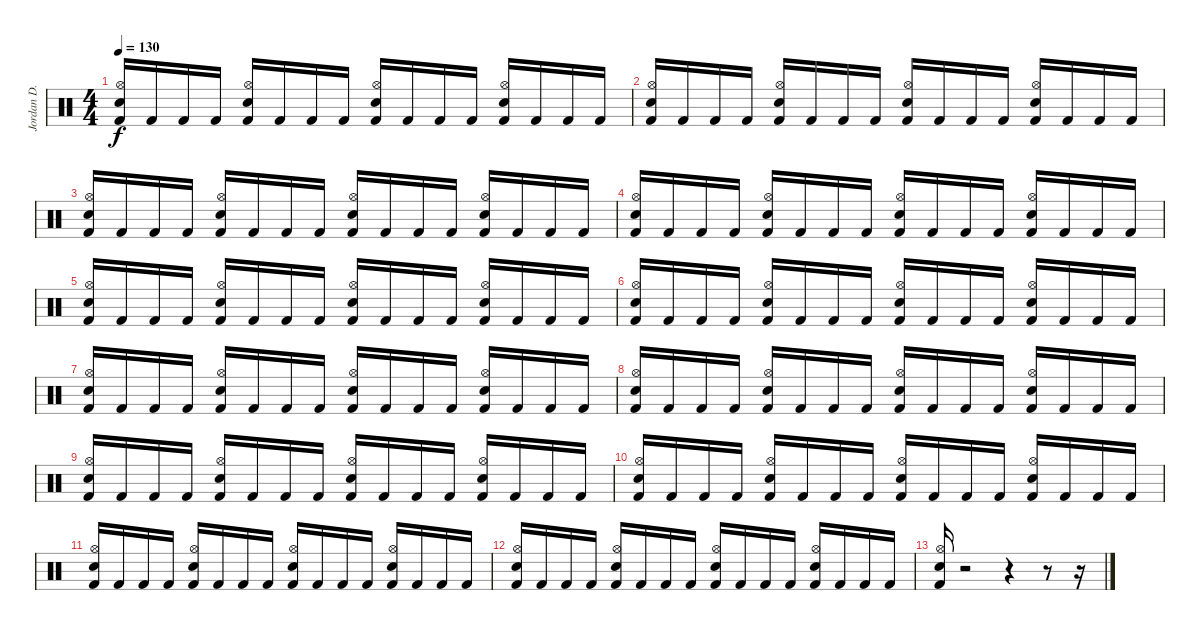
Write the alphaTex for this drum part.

\track ("Jordan D. Samolesky" "Jordan D. ") {instrument percussion}
\staff {score}
\articulation defaults
\ts (4 4)
\tempo 130
\clef neutral
\ks c
("Electric Snare (hit)" "Hi-Hat (open)" "Kick (hit) 2").16{dy f} "Kick (hit) 2".16 "Kick (hit) 2".16 "Kick (hit) 2".16 ("Electric Snare (hit)" "Hi-Hat (open)" "Kick (hit) 2").16 "Kick (hit) 2".16 "Kick (hit) 2".16 "Kick (hit) 2".16 ("Electric Snare (hit)" "Hi-Hat (open)" "Kick (hit) 2").16 "Kick (hit) 2".16 "Kick (hit) 2".16 "Kick (hit) 2".16 ("Electric Snare (hit)" "Hi-Hat (open)" "Kick (hit) 2").16 "Kick (hit) 2".16 "Kick (hit) 2".16 "Kick (hit) 2".16 |
("Electric Snare (hit)" "Hi-Hat (open)" "Kick (hit) 2").16 "Kick (hit) 2".16 "Kick (hit) 2".16 "Kick (hit) 2".16 ("Electric Snare (hit)" "Hi-Hat (open)" "Kick (hit) 2").16 "Kick (hit) 2".16 "Kick (hit) 2".16 "Kick (hit) 2".16 ("Electric Snare (hit)" "Hi-Hat (open)" "Kick (hit) 2").16 "Kick (hit) 2".16 "Kick (hit) 2".16 "Kick (hit) 2".16 ("Electric Snare (hit)" "Hi-Hat (open)" "Kick (hit) 2").16 "Kick (hit) 2".16 "Kick (hit) 2".16 "Kick (hit) 2".16 |
("Electric Snare (hit)" "Hi-Hat (open)" "Kick (hit) 2").16 "Kick (hit) 2".16 "Kick (hit) 2".16 "Kick (hit) 2".16 ("Electric Snare (hit)" "Hi-Hat (open)" "Kick (hit) 2").16 "Kick (hit) 2".16 "Kick (hit) 2".16 "Kick (hit) 2".16 ("Electric Snare (hit)" "Hi-Hat (open)" "Kick (hit) 2").16 "Kick (hit) 2".16 "Kick (hit) 2".16 "Kick (hit) 2".16 ("Electric Snare (hit)" "Hi-Hat (open)" "Kick (hit) 2").16 "Kick (hit) 2".16 "Kick (hit) 2".16 "Kick (hit) 2".16 |
("Electric Snare (hit)" "Hi-Hat (open)" "Kick (hit) 2").16 "Kick (hit) 2".16 "Kick (hit) 2".16 "Kick (hit) 2".16 ("Electric Snare (hit)" "Hi-Hat (open)" "Kick (hit) 2").16 "Kick (hit) 2".16 "Kick (hit) 2".16 "Kick (hit) 2".16 ("Electric Snare (hit)" "Hi-Hat (open)" "Kick (hit) 2").16 "Kick (hit) 2".16 "Kick (hit) 2".16 "Kick (hit) 2".16 ("Electric Snare (hit)" "Hi-Hat (open)" "Kick (hit) 2").16 "Kick (hit) 2".16 "Kick (hit) 2".16 "Kick (hit) 2".16 |
("Electric Snare (hit)" "Hi-Hat (open)" "Kick (hit) 2").16 "Kick (hit) 2".16 "Kick (hit) 2".16 "Kick (hit) 2".16 ("Electric Snare (hit)" "Hi-Hat (open)" "Kick (hit) 2").16 "Kick (hit) 2".16 "Kick (hit) 2".16 "Kick (hit) 2".16 ("Electric Snare (hit)" "Hi-Hat (open)" "Kick (hit) 2").16 "Kick (hit) 2".16 "Kick (hit) 2".16 "Kick (hit) 2".16 ("Electric Snare (hit)" "Hi-Hat (open)" "Kick (hit) 2").16 "Kick (hit) 2".16 "Kick (hit) 2".16 "Kick (hit) 2".16 |
("Electric Snare (hit)" "Hi-Hat (open)" "Kick (hit) 2").16 "Kick (hit) 2".16 "Kick (hit) 2".16 "Kick (hit) 2".16 ("Electric Snare (hit)" "Hi-Hat (open)" "Kick (hit) 2").16 "Kick (hit) 2".16 "Kick (hit) 2".16 "Kick (hit) 2".16 ("Electric Snare (hit)" "Hi-Hat (open)" "Kick (hit) 2").16 "Kick (hit) 2".16 "Kick (hit) 2".16 "Kick (hit) 2".16 ("Electric Snare (hit)" "Hi-Hat (open)" "Kick (hit) 2").16 "Kick (hit) 2".16 "Kick (hit) 2".16 "Kick (hit) 2".16 |
("Electric Snare (hit)" "Hi-Hat (open)" "Kick (hit) 2").16 "Kick (hit) 2".16 "Kick (hit) 2".16 "Kick (hit) 2".16 ("Electric Snare (hit)" "Hi-Hat (open)" "Kick (hit) 2").16 "Kick (hit) 2".16 "Kick (hit) 2".16 "Kick (hit) 2".16 ("Electric Snare (hit)" "Hi-Hat (open)" "Kick (hit) 2").16 "Kick (hit) 2".16 "Kick (hit) 2".16 "Kick (hit) 2".16 ("Electric Snare (hit)" "Hi-Hat (open)" "Kick (hit) 2").16 "Kick (hit) 2".16 "Kick (hit) 2".16 "Kick (hit) 2".16 |
("Electric Snare (hit)" "Hi-Hat (open)" "Kick (hit) 2").16 "Kick (hit) 2".16 "Kick (hit) 2".16 "Kick (hit) 2".16 ("Electric Snare (hit)" "Hi-Hat (open)" "Kick (hit) 2").16 "Kick (hit) 2".16 "Kick (hit) 2".16 "Kick (hit) 2".16 ("Electric Snare (hit)" "Hi-Hat (open)" "Kick (hit) 2").16 "Kick (hit) 2".16 "Kick (hit) 2".16 "Kick (hit) 2".16 ("Electric Snare (hit)" "Hi-Hat (open)" "Kick (hit) 2").16 "Kick (hit) 2".16 "Kick (hit) 2".16 "Kick (hit) 2".16 |
("Electric Snare (hit)" "Hi-Hat (open)" "Kick (hit) 2").16 "Kick (hit) 2".16 "Kick (hit) 2".16 "Kick (hit) 2".16 ("Electric Snare (hit)" "Hi-Hat (open)" "Kick (hit) 2").16 "Kick (hit) 2".16 "Kick (hit) 2".16 "Kick (hit) 2".16 ("Electric Snare (hit)" "Hi-Hat (open)" "Kick (hit) 2").16 "Kick (hit) 2".16 "Kick (hit) 2".16 "Kick (hit) 2".16 ("Electric Snare (hit)" "Hi-Hat (open)" "Kick (hit) 2").16 "Kick (hit) 2".16 "Kick (hit) 2".16 "Kick (hit) 2".16 |
("Electric Snare (hit)" "Hi-Hat (open)" "Kick (hit) 2").16 "Kick (hit) 2".16 "Kick (hit) 2".16 "Kick (hit) 2".16 ("Electric Snare (hit)" "Hi-Hat (open)" "Kick (hit) 2").16 "Kick (hit) 2".16 "Kick (hit) 2".16 "Kick (hit) 2".16 ("Electric Snare (hit)" "Hi-Hat (open)" "Kick (hit) 2").16 "Kick (hit) 2".16 "Kick (hit) 2".16 "Kick (hit) 2".16 ("Electric Snare (hit)" "Hi-Hat (open)" "Kick (hit) 2").16 "Kick (hit) 2".16 "Kick (hit) 2".16 "Kick (hit) 2".16 |
("Electric Snare (hit)" "Hi-Hat (open)" "Kick (hit) 2").16 "Kick (hit) 2".16 "Kick (hit) 2".16 "Kick (hit) 2".16 ("Electric Snare (hit)" "Hi-Hat (open)" "Kick (hit) 2").16 "Kick (hit) 2".16 "Kick (hit) 2".16 "Kick (hit) 2".16 ("Electric Snare (hit)" "Hi-Hat (open)" "Kick (hit) 2").16 "Kick (hit) 2".16 "Kick (hit) 2".16 "Kick (hit) 2".16 ("Electric Snare (hit)" "Hi-Hat (open)" "Kick (hit) 2").16 "Kick (hit) 2".16 "Kick (hit) 2".16 "Kick (hit) 2".16 |
("Electric Snare (hit)" "Hi-Hat (open)" "Kick (hit) 2").16 "Kick (hit) 2".16 "Kick (hit) 2".16 "Kick (hit) 2".16 ("Electric Snare (hit)" "Hi-Hat (open)" "Kick (hit) 2").16 "Kick (hit) 2".16 "Kick (hit) 2".16 "Kick (hit) 2".16 ("Electric Snare (hit)" "Hi-Hat (open)" "Kick (hit) 2").16 "Kick (hit) 2".16 "Kick (hit) 2".16 "Kick (hit) 2".16 ("Electric Snare (hit)" "Hi-Hat (open)" "Kick (hit) 2").16 "Kick (hit) 2".16 "Kick (hit) 2".16 "Kick (hit) 2".16 |
("Electric Snare (hit)" "Hi-Hat (open)" "Kick (hit) 2").16 r.2 r.4 r.8 r.16
